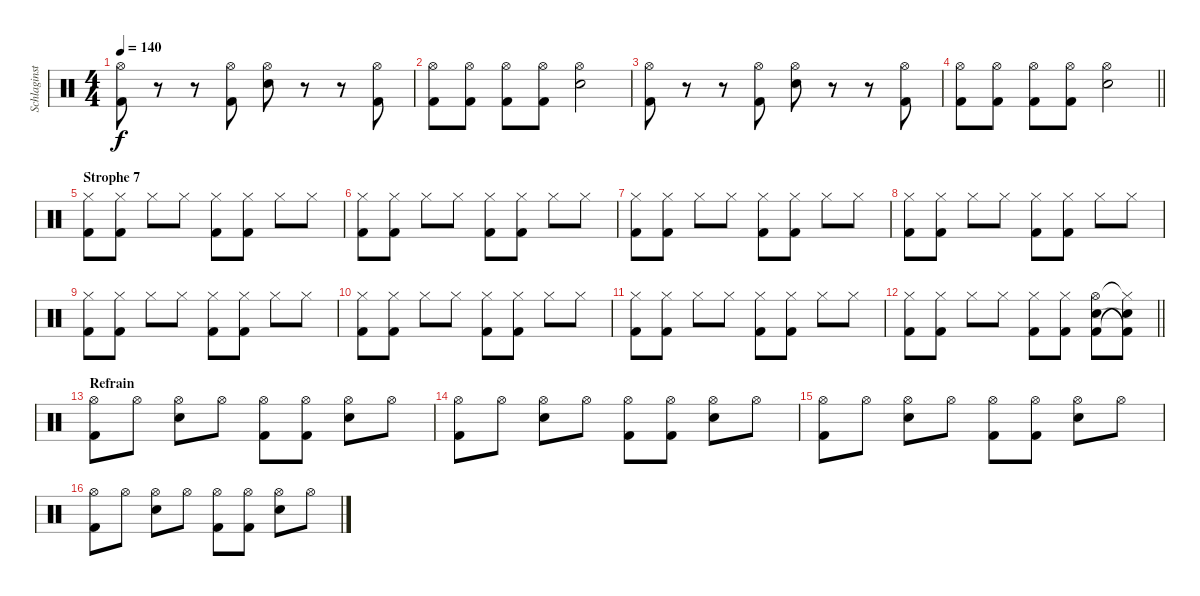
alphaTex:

\track ("Schlaginstrumente - Auswahl" "Schlaginst") {instrument percussion}
\staff {score}
\articulation defaults
\ts (4 4)
\tempo 140
\clef neutral
\ks c
("Hi-Hat (open)" "Kick (hit) 2").8{dy f} r.8 r.8 ("Hi-Hat (open)" "Kick (hit) 2").8 ("Hi-Hat (open)" "Snare (hit) 2").8 r.8 r.8 ("Hi-Hat (open)" "Kick (hit) 2").8 |
("Hi-Hat (open)" "Kick (hit) 2").8 ("Hi-Hat (open)" "Kick (hit) 2").8 ("Hi-Hat (open)" "Kick (hit) 2").8 ("Hi-Hat (open)" "Kick (hit) 2").8 ("Hi-Hat (open)" "Snare (hit) 2").2 |
("Hi-Hat (open)" "Kick (hit) 2").8 r.8 r.8 ("Hi-Hat (open)" "Kick (hit) 2").8 ("Hi-Hat (open)" "Snare (hit) 2").8 r.8 r.8 ("Hi-Hat (open)" "Kick (hit) 2").8 |
\barLineRight lightlight
("Hi-Hat (open)" "Kick (hit) 2").8 ("Hi-Hat (open)" "Kick (hit) 2").8 ("Hi-Hat (open)" "Kick (hit) 2").8 ("Hi-Hat (open)" "Kick (hit) 2").8 ("Hi-Hat (open)" "Snare (hit) 2").2 |
\section ("" "Strophe 7")
("Hi-Hat (closed)" "Kick (hit) 2").8 ("Hi-Hat (closed)" "Kick (hit) 2").8 "Hi-Hat (closed)".8 "Hi-Hat (closed)".8 ("Hi-Hat (closed)" "Kick (hit) 2").8 ("Hi-Hat (closed)" "Kick (hit) 2").8 "Hi-Hat (closed)".8 "Hi-Hat (closed)".8 |
("Hi-Hat (closed)" "Kick (hit) 2").8 ("Hi-Hat (closed)" "Kick (hit) 2").8 "Hi-Hat (closed)".8 "Hi-Hat (closed)".8 ("Hi-Hat (closed)" "Kick (hit) 2").8 ("Hi-Hat (closed)" "Kick (hit) 2").8 "Hi-Hat (closed)".8 "Hi-Hat (closed)".8 |
("Hi-Hat (closed)" "Kick (hit) 2").8 ("Hi-Hat (closed)" "Kick (hit) 2").8 "Hi-Hat (closed)".8 "Hi-Hat (closed)".8 ("Hi-Hat (closed)" "Kick (hit) 2").8 ("Hi-Hat (closed)" "Kick (hit) 2").8 "Hi-Hat (closed)".8 "Hi-Hat (closed)".8 |
("Hi-Hat (closed)" "Kick (hit) 2").8 ("Hi-Hat (closed)" "Kick (hit) 2").8 "Hi-Hat (closed)".8 "Hi-Hat (closed)".8 ("Hi-Hat (closed)" "Kick (hit) 2").8 ("Hi-Hat (closed)" "Kick (hit) 2").8 "Hi-Hat (closed)".8 "Hi-Hat (closed)".8 |
("Hi-Hat (closed)" "Kick (hit) 2").8 ("Hi-Hat (closed)" "Kick (hit) 2").8 "Hi-Hat (closed)".8 "Hi-Hat (closed)".8 ("Hi-Hat (closed)" "Kick (hit) 2").8 ("Hi-Hat (closed)" "Kick (hit) 2").8 "Hi-Hat (closed)".8 "Hi-Hat (closed)".8 |
("Hi-Hat (closed)" "Kick (hit) 2").8 ("Hi-Hat (closed)" "Kick (hit) 2").8 "Hi-Hat (closed)".8 "Hi-Hat (closed)".8 ("Hi-Hat (closed)" "Kick (hit) 2").8 ("Hi-Hat (closed)" "Kick (hit) 2").8 "Hi-Hat (closed)".8 "Hi-Hat (closed)".8 |
("Hi-Hat (closed)" "Kick (hit) 2").8 ("Hi-Hat (closed)" "Kick (hit) 2").8 "Hi-Hat (closed)".8 "Hi-Hat (closed)".8 ("Hi-Hat (closed)" "Kick (hit) 2").8 ("Hi-Hat (closed)" "Kick (hit) 2").8 "Hi-Hat (closed)".8 "Hi-Hat (closed)".8 |
\barLineRight lightlight
("Hi-Hat (closed)" "Kick (hit) 2").8 ("Hi-Hat (closed)" "Kick (hit) 2").8 "Hi-Hat (closed)".8 "Hi-Hat (closed)".8 ("Hi-Hat (closed)" "Kick (hit) 2").8 ("Hi-Hat (closed)" "Kick (hit) 2").8 ("Hi-Hat (open)" "Snare (hit) 2" "Kick (hit) 2").8 ("Hi-Hat (closed)"{t} "Kick (hit) 2"{t} "Snare (hit) 2"{t}).8 |
\section ("" "Refrain")
("Hi-Hat (open)" "Kick (hit) 2").8 "Hi-Hat (open)".8 ("Hi-Hat (open)" "Snare (hit) 2").8 "Hi-Hat (open)".8 ("Hi-Hat (open)" "Kick (hit) 2").8 ("Hi-Hat (open)" "Kick (hit) 2").8 ("Hi-Hat (open)" "Snare (hit) 2").8 "Hi-Hat (open)".8 |
("Hi-Hat (open)" "Kick (hit) 2").8 "Hi-Hat (open)".8 ("Hi-Hat (open)" "Snare (hit) 2").8 "Hi-Hat (open)".8 ("Hi-Hat (open)" "Kick (hit) 2").8 ("Hi-Hat (open)" "Kick (hit) 2").8 ("Hi-Hat (open)" "Snare (hit) 2").8 "Hi-Hat (open)".8 |
("Hi-Hat (open)" "Kick (hit) 2").8 "Hi-Hat (open)".8 ("Hi-Hat (open)" "Snare (hit) 2").8 "Hi-Hat (open)".8 ("Hi-Hat (open)" "Kick (hit) 2").8 ("Hi-Hat (open)" "Kick (hit) 2").8 ("Hi-Hat (open)" "Snare (hit) 2").8 "Hi-Hat (open)".8 |
("Hi-Hat (open)" "Kick (hit) 2").8 "Hi-Hat (open)".8 ("Hi-Hat (open)" "Snare (hit) 2").8 "Hi-Hat (open)".8 ("Hi-Hat (open)" "Kick (hit) 2").8 ("Hi-Hat (open)" "Kick (hit) 2").8 ("Hi-Hat (open)" "Snare (hit) 2").8 "Hi-Hat (open)".8
